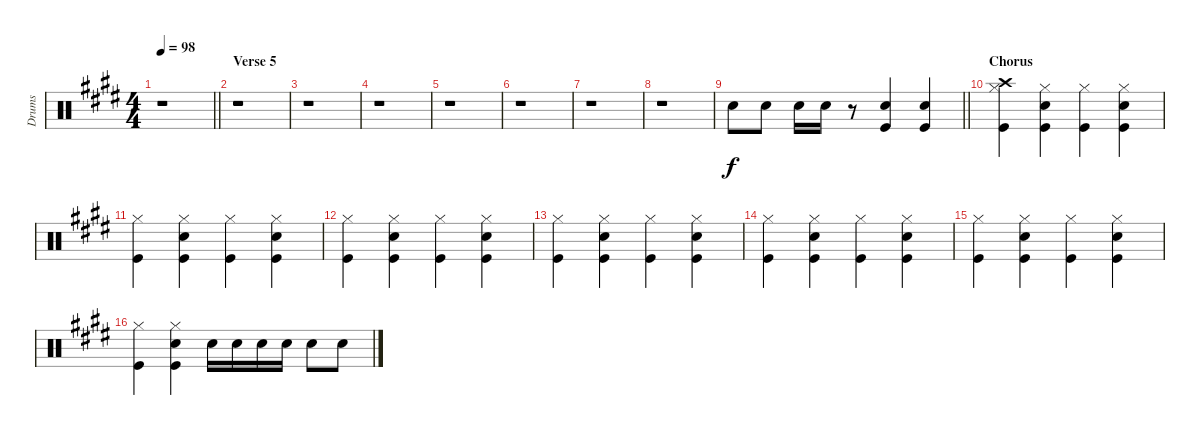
\track ("Drums" "Drums") {instrument percussion}
\staff {score}
\articulation defaults
\ts (4 4)
\tempo 98
\clef neutral
\barLineRight lightlight
\ks c#minor
r.1{dy f} |
\section ("" "Verse 5")
r.1 |
r.1 |
r.1 |
r.1 |
r.1 |
r.1 |
r.1 |
\barLineRight lightlight "Snare (hit) 2".8 "Snare (hit) 2".8 "Snare (hit) 2".16 "Snare (hit) 2".16
r.8 ("Kick (hit)" "Snare (hit) 2").4 ("Kick (hit)" "Snare (hit) 2").4 |
\section ("" "Chorus")
("Kick (hit)" "Hi-Hat (closed)" "Crash high (hit)").4 ("Kick (hit)" "Snare (hit) 2" "Hi-Hat (closed)").4 ("Kick (hit)" "Hi-Hat (closed)").4 ("Kick (hit)" "Snare (hit) 2" "Hi-Hat (closed)").4 |
("Kick (hit)" "Hi-Hat (closed)").4 ("Kick (hit)" "Snare (hit) 2" "Hi-Hat (closed)").4 ("Kick (hit)" "Hi-Hat (closed)").4 ("Kick (hit)" "Snare (hit) 2" "Hi-Hat (closed)").4 |
("Kick (hit)" "Hi-Hat (closed)").4 ("Kick (hit)" "Snare (hit) 2" "Hi-Hat (closed)").4 ("Kick (hit)" "Hi-Hat (closed)").4 ("Kick (hit)" "Snare (hit) 2" "Hi-Hat (closed)").4 |
("Kick (hit)" "Hi-Hat (closed)").4 ("Kick (hit)" "Snare (hit) 2" "Hi-Hat (closed)").4 ("Kick (hit)" "Hi-Hat (closed)").4 ("Kick (hit)" "Snare (hit) 2" "Hi-Hat (closed)").4 |
("Kick (hit)" "Hi-Hat (closed)").4 ("Kick (hit)" "Snare (hit) 2" "Hi-Hat (closed)").4 ("Kick (hit)" "Hi-Hat (closed)").4 ("Kick (hit)" "Snare (hit) 2" "Hi-Hat (closed)").4 |
("Kick (hit)" "Hi-Hat (closed)").4 ("Kick (hit)" "Snare (hit) 2" "Hi-Hat (closed)").4 ("Kick (hit)" "Hi-Hat (closed)").4 ("Kick (hit)" "Snare (hit) 2" "Hi-Hat (closed)").4 |
("Kick (hit)" "Hi-Hat (closed)").4 ("Kick (hit)" "Snare (hit) 2" "Hi-Hat (closed)").4 "Snare (hit) 2".16 "Snare (hit) 2".16 "Snare (hit) 2".16 "Snare (hit) 2".16 "Snare (hit) 2".8 "Snare (hit) 2".8
